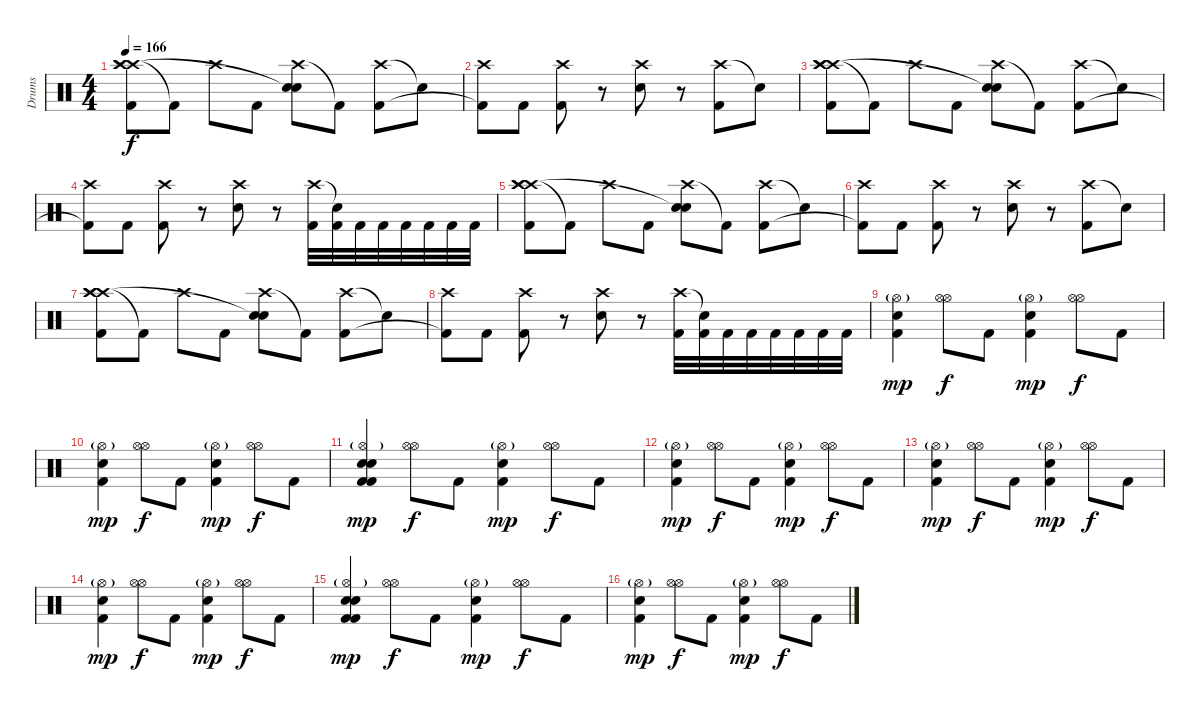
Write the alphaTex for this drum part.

\track ("Drums" "Drums") {instrument percussion}
\staff {score}
\articulation defaults
\ts (4 4)
\tempo 166
\clef neutral
\ks c
("Crash high (hit)" "Crash high (hit)" "Crash high (hit)" "Kick (hit) 2").8{dy f} "Kick (hit) 2"{t}.8 "Crash high (hit)".8 "Kick (hit) 2".8 ("Crash high (hit)" "Snare (hit) 2" "Snare (hit)"{t}).8 "Kick (hit) 2"{t}.8 ("Crash high (hit)" "Kick (hit) 2").8 "Snare (hit)"{t}.8 |
("Crash high (hit)" "Kick (hit) 2"{t}).8 "Kick (hit) 2".8 ("Crash high (hit)" "Kick (hit) 2").8 r.8 ("Crash high (hit)" "Snare (hit) 2").8 r.8 ("Crash high (hit)" "Kick (hit) 2").8 "Snare (hit)"{t}.8 |
("Crash high (hit)" "Crash high (hit)" "Crash high (hit)" "Kick (hit) 2").8 "Kick (hit) 2"{t}.8 "Crash high (hit)".8 "Kick (hit) 2".8 ("Crash high (hit)" "Snare (hit) 2" "Snare (hit)"{t}).8 "Kick (hit) 2"{t}.8 ("Crash high (hit)" "Kick (hit) 2").8 "Snare (hit)"{t}.8 |
("Crash high (hit)" "Kick (hit) 2"{t}).8 "Kick (hit) 2".8 ("Crash high (hit)" "Kick (hit) 2").8 r.8 ("Crash high (hit)" "Snare (hit) 2").8 r.8 ("Kick (hit) 2" "Crash high (hit)").32 ("Kick (hit) 2" "Snare (hit)"{t}).32 "Kick (hit) 2".32 "Kick (hit) 2".32 "Kick (hit) 2".32 "Kick (hit) 2".32 "Kick (hit) 2".32 "Kick (hit) 2".32 |
("Crash high (hit)" "Crash high (hit)" "Crash high (hit)" "Kick (hit) 2").8 "Kick (hit) 2"{t}.8 "Crash high (hit)".8 "Kick (hit) 2".8 ("Crash high (hit)" "Snare (hit) 2" "Snare (hit)"{t}).8 "Kick (hit) 2"{t}.8 ("Crash high (hit)" "Kick (hit) 2").8 "Snare (hit)"{t}.8 |
("Crash high (hit)" "Kick (hit) 2"{t}).8 "Kick (hit) 2".8 ("Crash high (hit)" "Kick (hit) 2").8 r.8 ("Crash high (hit)" "Snare (hit) 2").8 r.8 ("Crash high (hit)" "Kick (hit) 2").8 "Snare (hit)"{t}.8 |
("Crash high (hit)" "Crash high (hit)" "Crash high (hit)" "Kick (hit) 2").8 "Kick (hit) 2"{t}.8 "Crash high (hit)".8 "Kick (hit) 2".8 ("Crash high (hit)" "Snare (hit) 2" "Snare (hit)"{t}).8 "Kick (hit) 2"{t}.8 ("Crash high (hit)" "Kick (hit) 2").8 "Snare (hit)"{t}.8 |
("Crash high (hit)" "Kick (hit) 2"{t}).8 "Kick (hit) 2".8 ("Crash high (hit)" "Kick (hit) 2").8 r.8 ("Crash high (hit)" "Snare (hit) 2").8 r.8 ("Kick (hit) 2" "Crash high (hit)").32 ("Kick (hit) 2" "Snare (hit)"{t}).32 "Kick (hit) 2".32 "Kick (hit) 2".32 "Kick (hit) 2".32 "Kick (hit) 2".32 "Kick (hit) 2".32 "Kick (hit) 2".32 |
("Hi-Hat (open)"{g} "Kick (hit) 2" "Snare (hit) 2").4{dy mp} ("Hi-Hat (open)" "Hi-Hat (open)").8{dy f} "Kick (hit) 2".8 ("Hi-Hat (open)"{g} "Kick (hit) 2" "Snare (hit) 2").4{dy mp} ("Hi-Hat (open)" "Hi-Hat (open)").8{dy f} "Kick (hit) 2".8 |
("Hi-Hat (open)"{g} "Kick (hit) 2" "Snare (hit) 2").4{dy mp} ("Hi-Hat (open)" "Hi-Hat (open)").8{dy f} "Kick (hit) 2".8 ("Hi-Hat (open)"{g} "Kick (hit) 2" "Snare (hit) 2").4{dy mp} ("Hi-Hat (open)" "Hi-Hat (open)").8{dy f} "Kick (hit) 2".8 |
("Kick (hit) 2" "Electric Snare (hit)" "Hi-Hat (open)"{g} "Kick (hit) 2" "Snare (hit) 2").4{dy mp} ("Hi-Hat (open)" "Hi-Hat (open)").8{dy f} "Kick (hit) 2".8 ("Hi-Hat (open)"{g} "Kick (hit) 2" "Snare (hit) 2").4{dy mp} ("Hi-Hat (open)" "Hi-Hat (open)").8{dy f} "Kick (hit) 2".8 |
("Hi-Hat (open)"{g} "Kick (hit) 2" "Snare (hit) 2").4{dy mp} ("Hi-Hat (open)" "Hi-Hat (open)").8{dy f} "Kick (hit) 2".8 ("Hi-Hat (open)"{g} "Kick (hit) 2" "Snare (hit) 2").4{dy mp} ("Hi-Hat (open)" "Hi-Hat (open)").8{dy f} "Kick (hit) 2".8 |
("Hi-Hat (open)"{g} "Kick (hit) 2" "Snare (hit) 2").4{dy mp} ("Hi-Hat (open)" "Hi-Hat (open)").8{dy f} "Kick (hit) 2".8 ("Hi-Hat (open)"{g} "Kick (hit) 2" "Snare (hit) 2").4{dy mp} ("Hi-Hat (open)" "Hi-Hat (open)").8{dy f} "Kick (hit) 2".8 |
("Hi-Hat (open)"{g} "Kick (hit) 2" "Snare (hit) 2").4{dy mp} ("Hi-Hat (open)" "Hi-Hat (open)").8{dy f} "Kick (hit) 2".8 ("Hi-Hat (open)"{g} "Kick (hit) 2" "Snare (hit) 2").4{dy mp} ("Hi-Hat (open)" "Hi-Hat (open)").8{dy f} "Kick (hit) 2".8 |
("Kick (hit) 2" "Electric Snare (hit)" "Hi-Hat (open)"{g} "Kick (hit) 2" "Snare (hit) 2").4{dy mp} ("Hi-Hat (open)" "Hi-Hat (open)").8{dy f} "Kick (hit) 2".8 ("Hi-Hat (open)"{g} "Kick (hit) 2" "Snare (hit) 2").4{dy mp} ("Hi-Hat (open)" "Hi-Hat (open)").8{dy f} "Kick (hit) 2".8 |
("Hi-Hat (open)"{g} "Kick (hit) 2" "Snare (hit) 2").4{dy mp} ("Hi-Hat (open)" "Hi-Hat (open)").8{dy f} "Kick (hit) 2".8 ("Hi-Hat (open)"{g} "Kick (hit) 2" "Snare (hit) 2").4{dy mp} ("Hi-Hat (open)" "Hi-Hat (open)").8{dy f} "Kick (hit) 2".8
